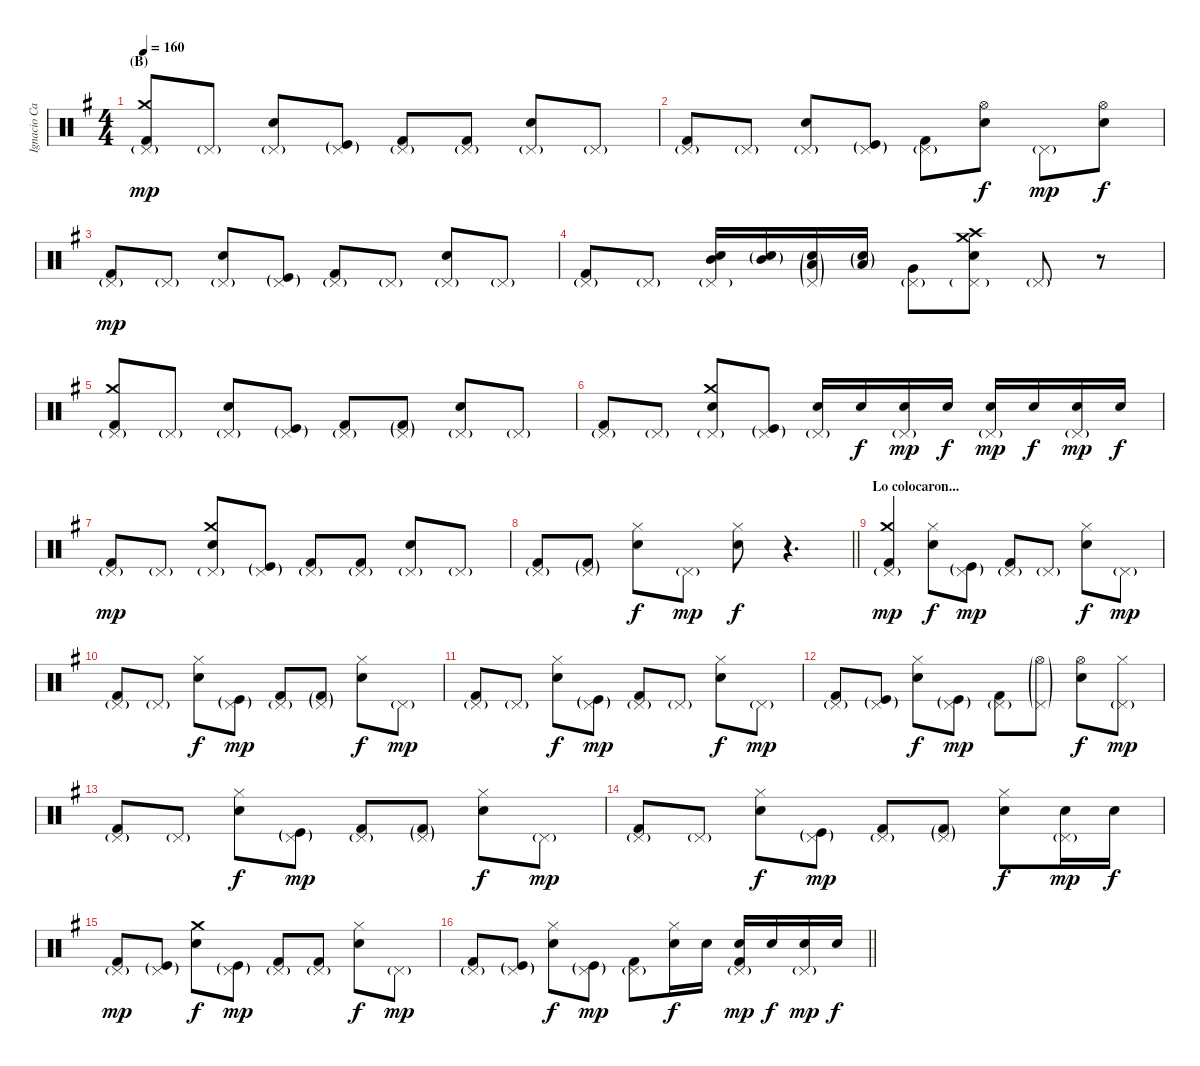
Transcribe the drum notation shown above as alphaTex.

\track ("Ignacio Cantera - Batería" "Ignacio Ca") {instrument percussion}
\staff {score}
\articulation defaults
\ts (4 4)
\section ("" "(B)")
\tempo 160
\clef neutral
\ks eminor
("Pedal Hi-Hat (hit)"{g} "Crash medium (hit)" "Kick (hit) 2").8{dy mp} "Pedal Hi-Hat (hit)"{g}.8 ("Pedal Hi-Hat (hit)"{g} "Snare (hit) 2").8 ("Pedal Hi-Hat (hit)"{g} "Kick (hit)"{g}).8 ("Pedal Hi-Hat (hit)"{g} "Kick (hit) 2").8 ("Pedal Hi-Hat (hit)"{g} "Kick (hit) 2").8 ("Pedal Hi-Hat (hit)"{g} "Snare (hit) 2").8 "Pedal Hi-Hat (hit)"{g}.8 |
("Pedal Hi-Hat (hit)"{g} "Kick (hit) 2").8 "Pedal Hi-Hat (hit)"{g}.8 ("Pedal Hi-Hat (hit)"{g} "Snare (hit) 2").8 ("Pedal Hi-Hat (hit)"{g} "Kick (hit)"{g}).8 ("Pedal Hi-Hat (hit)"{g} "Kick (hit) 2").8 ("Hi-Hat (open)" "Snare (hit) 2").8{dy f} "Pedal Hi-Hat (hit)"{g}.8{dy mp} ("Hi-Hat (open)" "Snare (hit) 2").8{dy f} |
("Pedal Hi-Hat (hit)"{g} "Kick (hit) 2").8{dy mp} "Pedal Hi-Hat (hit)"{g}.8 ("Pedal Hi-Hat (hit)"{g} "Snare (hit) 2").8 ("Pedal Hi-Hat (hit)"{g} "Kick (hit)"{g}).8 ("Pedal Hi-Hat (hit)"{g} "Kick (hit) 2").8 "Pedal Hi-Hat (hit)"{g}.8 ("Pedal Hi-Hat (hit)"{g} "Snare (hit) 2").8 "Pedal Hi-Hat (hit)"{g}.8 |
("Pedal Hi-Hat (hit)"{g} "Kick (hit) 2").8 "Pedal Hi-Hat (hit)"{g}.8 ("Pedal Hi-Hat (hit)"{g} "Mid Tom (hit)" "Snare (hit) 2").16 ("Mid Tom (hit)"{g} "Snare (hit) 2"{g}).16 ("Pedal Hi-Hat (hit)"{g} "Low Tom (hit)"{g} "Snare (hit) 2"{g}).16 ("Low Tom (hit)"{g} "Snare (hit) 2"{g}).16 ("Pedal Hi-Hat (hit)"{g} "Very Low Tom (hit)").8 ("Pedal Hi-Hat (hit)"{g} "Snare (hit) 2" "Crash medium (hit)" "Crash high (hit)").8 "Pedal Hi-Hat (hit)"{g}.8 r.8 |
("Pedal Hi-Hat (hit)"{g} "Crash medium (hit)" "Kick (hit) 2").8 "Pedal Hi-Hat (hit)"{g}.8 ("Pedal Hi-Hat (hit)"{g} "Snare (hit) 2").8 ("Pedal Hi-Hat (hit)"{g} "Kick (hit)"{g}).8 ("Pedal Hi-Hat (hit)"{g} "Kick (hit) 2").8 ("Pedal Hi-Hat (hit)"{g} "Kick (hit) 2"{g}).8 ("Pedal Hi-Hat (hit)"{g} "Snare (hit) 2").8 "Pedal Hi-Hat (hit)"{g}.8 |
("Pedal Hi-Hat (hit)"{g} "Kick (hit) 2").8 "Pedal Hi-Hat (hit)"{g}.8 ("Pedal Hi-Hat (hit)"{g} "Snare (hit) 2" "Crash medium (hit)").8 ("Pedal Hi-Hat (hit)"{g} "Kick (hit)"{g}).8 ("Pedal Hi-Hat (hit)"{g} "Electric Snare (hit)").16 "Electric Snare (hit)".16{dy f} ("Pedal Hi-Hat (hit)"{g} "Electric Snare (hit)").16{dy mp} "Electric Snare (hit)".16{dy f} ("Pedal Hi-Hat (hit)"{g} "Electric Snare (hit)").16{dy mp} "Electric Snare (hit)".16{dy f} ("Pedal Hi-Hat (hit)"{g} "Electric Snare (hit)").16{dy mp} "Electric Snare (hit)".16{dy f} |
("Pedal Hi-Hat (hit)"{g} "Kick (hit) 2").8{dy mp} "Pedal Hi-Hat (hit)"{g}.8 ("Pedal Hi-Hat (hit)"{g} "Snare (hit) 2" "Crash medium (hit)").8 ("Pedal Hi-Hat (hit)"{g} "Kick (hit)"{g}).8 ("Pedal Hi-Hat (hit)"{g} "Kick (hit) 2").8 ("Pedal Hi-Hat (hit)"{g} "Kick (hit) 2").8 ("Pedal Hi-Hat (hit)"{g} "Snare (hit) 2").8 "Pedal Hi-Hat (hit)"{g}.8 |
\barLineRight lightlight
("Pedal Hi-Hat (hit)"{g} "Kick (hit) 2").8 ("Pedal Hi-Hat (hit)"{g} "Kick (hit) 2"{g}).8 ("Hi-Hat (closed)" "Snare (hit) 2").8{dy f} "Pedal Hi-Hat (hit)"{g}.8{dy mp} ("Hi-Hat (closed)" "Snare (hit) 2").8{dy f} r.4{d} |
\section ("" "Lo colocaron...")
("Pedal Hi-Hat (hit)"{g} "Crash medium (hit)" "Kick (hit) 2").4{dy mp} ("Hi-Hat (closed)" "Snare (hit) 2").8{dy f} ("Pedal Hi-Hat (hit)"{g} "Kick (hit)"{g}).8{dy mp} ("Pedal Hi-Hat (hit)"{g} "Kick (hit) 2").8 "Pedal Hi-Hat (hit)"{g}.8 ("Hi-Hat (closed)" "Snare (hit) 2").8{dy f} "Pedal Hi-Hat (hit)"{g}.8{dy mp} |
("Pedal Hi-Hat (hit)"{g} "Kick (hit) 2").8 "Pedal Hi-Hat (hit)"{g}.8 ("Hi-Hat (closed)" "Snare (hit) 2").8{dy f} ("Pedal Hi-Hat (hit)"{g} "Kick (hit)"{g}).8{dy mp} ("Pedal Hi-Hat (hit)"{g} "Kick (hit) 2").8 ("Pedal Hi-Hat (hit)"{g} "Kick (hit) 2"{g}).8 ("Hi-Hat (closed)" "Snare (hit) 2").8{dy f} "Pedal Hi-Hat (hit)"{g}.8{dy mp} |
("Pedal Hi-Hat (hit)"{g} "Kick (hit) 2").8 "Pedal Hi-Hat (hit)"{g}.8 ("Hi-Hat (closed)" "Snare (hit) 2").8{dy f} ("Pedal Hi-Hat (hit)"{g} "Kick (hit)"{g}).8{dy mp} ("Pedal Hi-Hat (hit)"{g} "Kick (hit) 2").8 "Pedal Hi-Hat (hit)"{g}.8 ("Hi-Hat (closed)" "Snare (hit) 2").8{dy f} "Pedal Hi-Hat (hit)"{g}.8{dy mp} |
("Pedal Hi-Hat (hit)"{g} "Kick (hit) 2").8 ("Pedal Hi-Hat (hit)"{g} "Kick (hit)"{g}).8 ("Hi-Hat (closed)" "Snare (hit) 2").8{dy f} ("Pedal Hi-Hat (hit)"{g} "Kick (hit)"{g}).8{dy mp} ("Pedal Hi-Hat (hit)"{g} "Kick (hit) 2").8 ("Pedal Hi-Hat (hit)"{g} "Hi-Hat (open)"{g}).8 ("Hi-Hat (open)" "Snare (hit) 2").8{dy f} ("Pedal Hi-Hat (hit)"{g} "Hi-Hat (closed)").8{dy mp} |
("Pedal Hi-Hat (hit)"{g} "Kick (hit) 2").8 "Pedal Hi-Hat (hit)"{g}.8 ("Hi-Hat (closed)" "Snare (hit) 2").8{dy f} ("Pedal Hi-Hat (hit)"{g} "Kick (hit)"{g}).8{dy mp} ("Pedal Hi-Hat (hit)"{g} "Kick (hit) 2").8 ("Pedal Hi-Hat (hit)"{g} "Kick (hit) 2"{g}).8 ("Hi-Hat (closed)" "Snare (hit) 2").8{dy f} "Pedal Hi-Hat (hit)"{g}.8{dy mp} |
("Pedal Hi-Hat (hit)"{g} "Kick (hit) 2").8 "Pedal Hi-Hat (hit)"{g}.8 ("Hi-Hat (closed)" "Snare (hit) 2").8{dy f} ("Pedal Hi-Hat (hit)"{g} "Kick (hit)"{g}).8{dy mp} ("Pedal Hi-Hat (hit)"{g} "Kick (hit) 2").8 ("Pedal Hi-Hat (hit)"{g} "Kick (hit) 2"{g}).8 ("Hi-Hat (closed)" "Snare (hit) 2").8{dy f} ("Pedal Hi-Hat (hit)"{g} "Snare (hit) 2").16{dy mp} "Snare (hit) 2".16{dy f} |
("Pedal Hi-Hat (hit)"{g} "Kick (hit) 2").8{dy mp} ("Pedal Hi-Hat (hit)"{g} "Kick (hit)"{g}).8 ("Crash medium (hit)" "Snare (hit) 2").8{dy f} ("Pedal Hi-Hat (hit)"{g} "Kick (hit)"{g}).8{dy mp} ("Pedal Hi-Hat (hit)"{g} "Kick (hit) 2").8 ("Pedal Hi-Hat (hit)"{g} "Kick (hit) 2").8 ("Hi-Hat (closed)" "Snare (hit) 2").8{dy f} "Pedal Hi-Hat (hit)"{g}.8{dy mp} |
\barLineRight lightlight
("Pedal Hi-Hat (hit)"{g} "Kick (hit) 2").8 ("Pedal Hi-Hat (hit)"{g} "Kick (hit)"{g}).8 ("Hi-Hat (closed)" "Snare (hit) 2").8{dy f} ("Pedal Hi-Hat (hit)"{g} "Kick (hit)"{g}).8{dy mp} ("Pedal Hi-Hat (hit)"{g} "Kick (hit) 2").8 ("Hi-Hat (closed)" "Electric Snare (hit)").16{dy f} "Electric Snare (hit)".16 ("Pedal Hi-Hat (hit)"{g} "Electric Snare (hit)" "Kick (hit) 2").16{dy mp} "Electric Snare (hit)".16{dy f} ("Pedal Hi-Hat (hit)"{g} "Electric Snare (hit)").16{dy mp} "Electric Snare (hit)".16{dy f}
